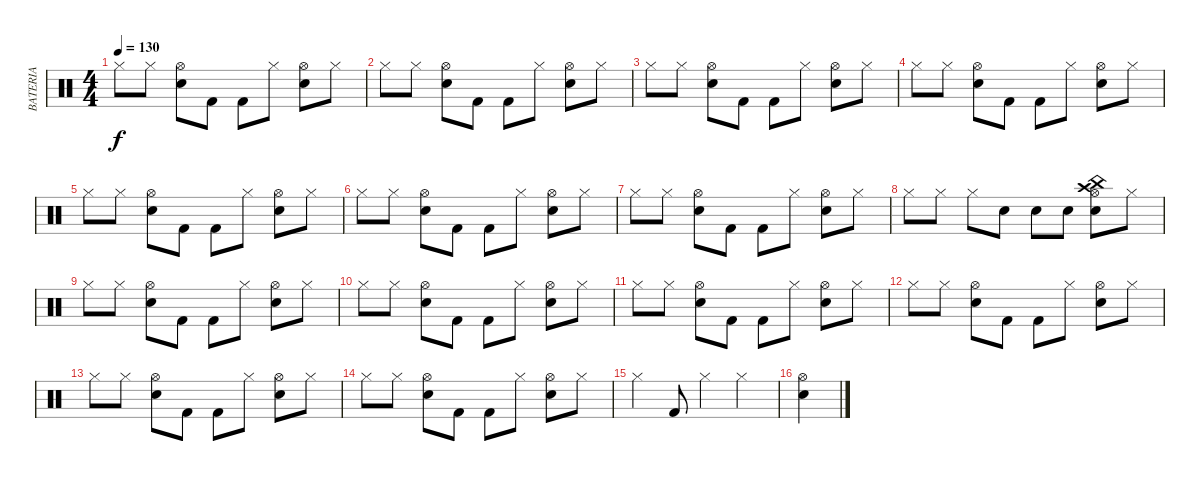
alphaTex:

\track ("BATERIA" "BATERIA") {mute instrument percussion}
\staff {score}
\articulation defaults
\ts (4 4)
\tempo 130
\clef neutral
\ks c "Hi-Hat (closed)".8{dy f} "Hi-Hat (closed)".8
("Snare (hit) 2" "Hi-Hat (open)").8 "Kick (hit) 2".8 "Kick (hit) 2".8 "Hi-Hat (closed)".8 ("Snare (hit) 2" "Hi-Hat (open)").8 "Hi-Hat (closed)".8 |
"Hi-Hat (closed)".8 "Hi-Hat (closed)".8 ("Snare (hit) 2" "Hi-Hat (open)").8 "Kick (hit) 2".8 "Kick (hit) 2".8 "Hi-Hat (closed)".8 ("Snare (hit) 2" "Hi-Hat (open)").8 "Hi-Hat (closed)".8 |
"Hi-Hat (closed)".8 "Hi-Hat (closed)".8 ("Snare (hit) 2" "Hi-Hat (open)").8 "Kick (hit) 2".8 "Kick (hit) 2".8 "Hi-Hat (closed)".8 ("Snare (hit) 2" "Hi-Hat (open)").8 "Hi-Hat (closed)".8 |
"Hi-Hat (closed)".8 "Hi-Hat (closed)".8 ("Snare (hit) 2" "Hi-Hat (open)").8 "Kick (hit) 2".8 "Kick (hit) 2".8 "Hi-Hat (closed)".8 ("Snare (hit) 2" "Hi-Hat (open)").8 "Hi-Hat (closed)".8 |
"Hi-Hat (closed)".8 "Hi-Hat (closed)".8 ("Snare (hit) 2" "Hi-Hat (open)").8 "Kick (hit) 2".8 "Kick (hit) 2".8 "Hi-Hat (closed)".8 ("Snare (hit) 2" "Hi-Hat (open)").8 "Hi-Hat (closed)".8 |
"Hi-Hat (closed)".8 "Hi-Hat (closed)".8 ("Snare (hit) 2" "Hi-Hat (open)").8 "Kick (hit) 2".8 "Kick (hit) 2".8 "Hi-Hat (closed)".8 ("Snare (hit) 2" "Hi-Hat (open)").8 "Hi-Hat (closed)".8 |
"Hi-Hat (closed)".8 "Hi-Hat (closed)".8 ("Snare (hit) 2" "Hi-Hat (open)").8 "Kick (hit) 2".8 "Kick (hit) 2".8 "Hi-Hat (closed)".8 ("Snare (hit) 2" "Hi-Hat (open)").8 "Hi-Hat (closed)".8 |
"Hi-Hat (closed)".8 "Hi-Hat (closed)".8 "Hi-Hat (closed)".8 "Snare (hit) 2".8 "Snare (hit) 2".8 "Snare (hit) 2".8 ("Snare (hit) 2" "Hi-Hat (open)" "China (hit)" "Crash high (hit)").8 "Hi-Hat (closed)".8 |
"Hi-Hat (closed)".8 "Hi-Hat (closed)".8 ("Snare (hit) 2" "Hi-Hat (open)").8 "Kick (hit) 2".8 "Kick (hit) 2".8 "Hi-Hat (closed)".8 ("Snare (hit) 2" "Hi-Hat (open)").8 "Hi-Hat (closed)".8 |
"Hi-Hat (closed)".8 "Hi-Hat (closed)".8 ("Snare (hit) 2" "Hi-Hat (open)").8 "Kick (hit) 2".8 "Kick (hit) 2".8 "Hi-Hat (closed)".8 ("Snare (hit) 2" "Hi-Hat (open)").8 "Hi-Hat (closed)".8 |
"Hi-Hat (closed)".8 "Hi-Hat (closed)".8 ("Snare (hit) 2" "Hi-Hat (open)").8 "Kick (hit) 2".8 "Kick (hit) 2".8 "Hi-Hat (closed)".8 ("Snare (hit) 2" "Hi-Hat (open)").8 "Hi-Hat (closed)".8 |
"Hi-Hat (closed)".8 "Hi-Hat (closed)".8 ("Snare (hit) 2" "Hi-Hat (open)").8 "Kick (hit) 2".8 "Kick (hit) 2".8 "Hi-Hat (closed)".8 ("Snare (hit) 2" "Hi-Hat (open)").8 "Hi-Hat (closed)".8 |
"Hi-Hat (closed)".8 "Hi-Hat (closed)".8 ("Snare (hit) 2" "Hi-Hat (open)").8 "Kick (hit) 2".8 "Kick (hit) 2".8 "Hi-Hat (closed)".8 ("Snare (hit) 2" "Hi-Hat (open)").8 "Hi-Hat (closed)".8 |
"Hi-Hat (closed)".8 "Hi-Hat (closed)".8 ("Snare (hit) 2" "Hi-Hat (open)").8 "Kick (hit) 2".8 "Kick (hit) 2".8 "Hi-Hat (closed)".8 ("Snare (hit) 2" "Hi-Hat (open)").8 "Hi-Hat (closed)".8 |
"Hi-Hat (closed)".4 "Kick (hit) 2".8 "Hi-Hat (closed)".4 "Hi-Hat (closed)".4 |
("Snare (hit) 2" "Hi-Hat (open)").4
